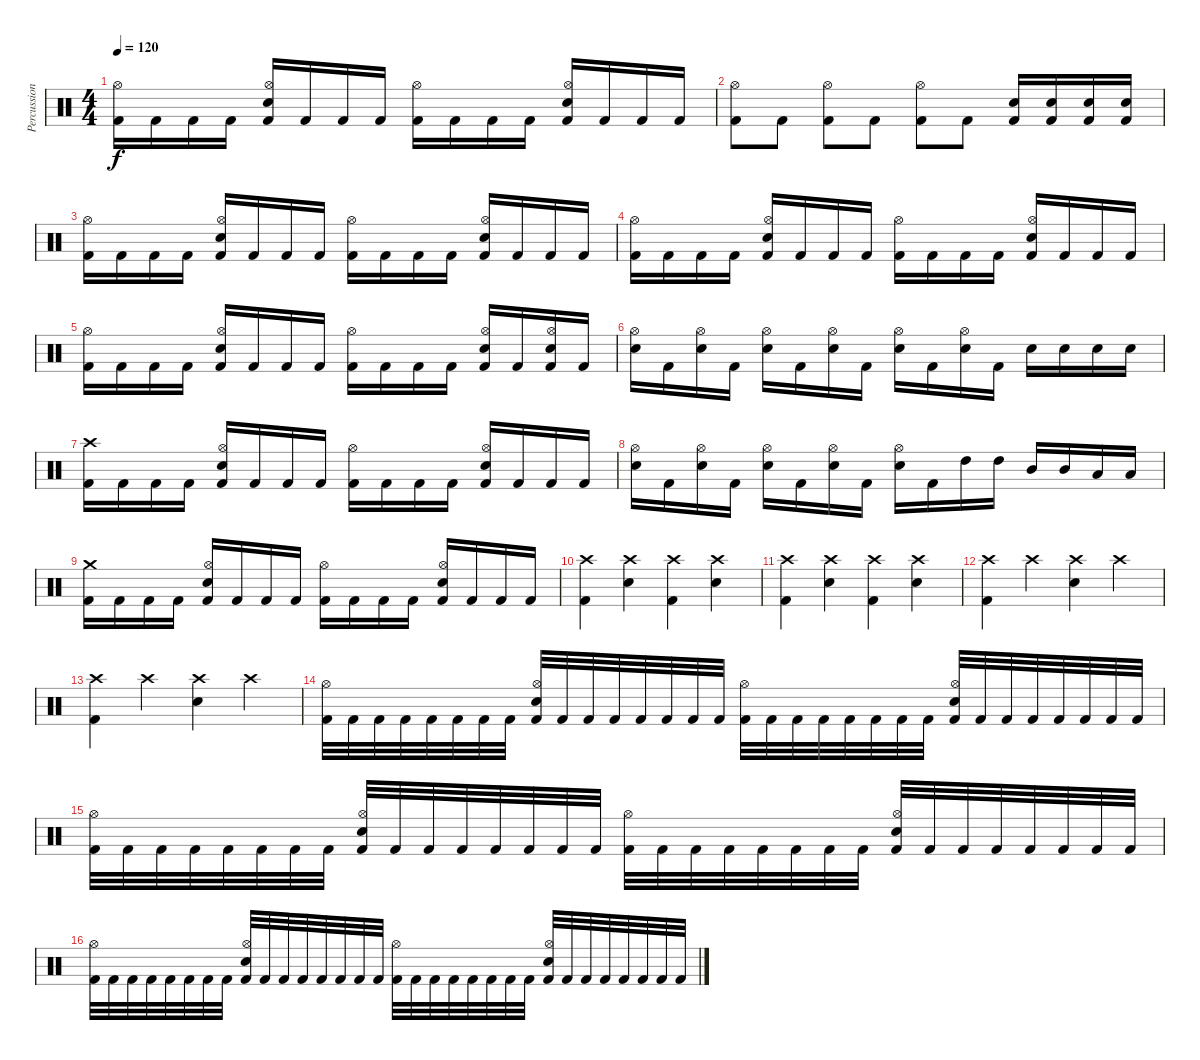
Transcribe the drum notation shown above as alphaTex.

\track ("Percussion" "Percussion") {instrument percussion}
\staff {score}
\articulation defaults
\ts (4 4)
\tempo 120
\clef neutral
\ks c
("Kick (hit) 2" "Hi-Hat (open)").16{dy f} "Kick (hit) 2".16 "Kick (hit) 2".16 "Kick (hit) 2".16 ("Kick (hit) 2" "Hi-Hat (open)" "Electric Snare (hit)").16 "Kick (hit) 2".16 "Kick (hit) 2".16 "Kick (hit) 2".16 ("Kick (hit) 2" "Hi-Hat (open)").16 "Kick (hit) 2".16 "Kick (hit) 2".16 "Kick (hit) 2".16 ("Kick (hit) 2" "Hi-Hat (open)" "Electric Snare (hit)").16 "Kick (hit) 2".16 "Kick (hit) 2".16 "Kick (hit) 2".16 |
("Kick (hit) 2" "Hi-Hat (open)").8 "Kick (hit) 2".8 ("Kick (hit) 2" "Hi-Hat (open)").8 "Kick (hit) 2".8 ("Kick (hit) 2" "Hi-Hat (open)").8 "Kick (hit) 2".8 ("Kick (hit) 2" "Electric Snare (hit)").16 ("Kick (hit) 2" "Electric Snare (hit)").16 ("Kick (hit) 2" "Electric Snare (hit)").16 ("Kick (hit) 2" "Electric Snare (hit)").16 |
("Kick (hit) 2" "Hi-Hat (open)").16 "Kick (hit) 2".16 "Kick (hit) 2".16 "Kick (hit) 2".16 ("Kick (hit) 2" "Hi-Hat (open)" "Electric Snare (hit)").16 "Kick (hit) 2".16 "Kick (hit) 2".16 "Kick (hit) 2".16 ("Kick (hit) 2" "Hi-Hat (open)").16 "Kick (hit) 2".16 "Kick (hit) 2".16 "Kick (hit) 2".16 ("Kick (hit) 2" "Hi-Hat (open)" "Electric Snare (hit)").16 "Kick (hit) 2".16 "Kick (hit) 2".16 "Kick (hit) 2".16 |
("Kick (hit) 2" "Hi-Hat (open)").16 "Kick (hit) 2".16 "Kick (hit) 2".16 "Kick (hit) 2".16 ("Kick (hit) 2" "Hi-Hat (open)" "Electric Snare (hit)").16 "Kick (hit) 2".16 "Kick (hit) 2".16 "Kick (hit) 2".16 ("Kick (hit) 2" "Hi-Hat (open)").16 "Kick (hit) 2".16 "Kick (hit) 2".16 "Kick (hit) 2".16 ("Kick (hit) 2" "Hi-Hat (open)" "Electric Snare (hit)").16 "Kick (hit) 2".16 "Kick (hit) 2".16 "Kick (hit) 2".16 |
("Kick (hit) 2" "Hi-Hat (open)").16 "Kick (hit) 2".16 "Kick (hit) 2".16 "Kick (hit) 2".16 ("Kick (hit) 2" "Hi-Hat (open)" "Electric Snare (hit)").16 "Kick (hit) 2".16 "Kick (hit) 2".16 "Kick (hit) 2".16 ("Kick (hit) 2" "Hi-Hat (open)").16 "Kick (hit) 2".16 "Kick (hit) 2".16 "Kick (hit) 2".16 ("Kick (hit) 2" "Hi-Hat (open)" "Electric Snare (hit)").16 "Kick (hit) 2".16 ("Kick (hit) 2" "Hi-Hat (open)" "Electric Snare (hit)").16 "Kick (hit) 2".16 |
("Electric Snare (hit)" "Hi-Hat (open)").16 "Kick (hit) 2".16 ("Electric Snare (hit)" "Hi-Hat (open)").16 "Kick (hit) 2".16 ("Electric Snare (hit)" "Hi-Hat (open)").16 "Kick (hit) 2".16 ("Electric Snare (hit)" "Hi-Hat (open)").16 "Kick (hit) 2".16 ("Electric Snare (hit)" "Hi-Hat (open)").16 "Kick (hit) 2".16 ("Electric Snare (hit)" "Hi-Hat (open)").16 "Kick (hit) 2".16 "Electric Snare (hit)".16 "Electric Snare (hit)".16 "Electric Snare (hit)".16 "Electric Snare (hit)".16 |
("Kick (hit) 2" "Crash high (hit)").16 "Kick (hit) 2".16 "Kick (hit) 2".16 "Kick (hit) 2".16 ("Kick (hit) 2" "Hi-Hat (open)" "Electric Snare (hit)").16 "Kick (hit) 2".16 "Kick (hit) 2".16 "Kick (hit) 2".16 ("Kick (hit) 2" "Hi-Hat (open)").16 "Kick (hit) 2".16 "Kick (hit) 2".16 "Kick (hit) 2".16 ("Kick (hit) 2" "Hi-Hat (open)" "Electric Snare (hit)").16 "Kick (hit) 2".16 "Kick (hit) 2".16 "Kick (hit) 2".16 |
("Electric Snare (hit)" "Hi-Hat (open)").16 "Kick (hit) 2".16 ("Electric Snare (hit)" "Hi-Hat (open)").16 "Kick (hit) 2".16 ("Electric Snare (hit)" "Hi-Hat (open)").16 "Kick (hit) 2".16 ("Electric Snare (hit)" "Hi-Hat (open)").16 "Kick (hit) 2".16 ("Electric Snare (hit)" "Hi-Hat (open)").16 "Kick (hit) 2".16 "High Tom (hit)".16 "High Tom (hit)".16 "Mid Tom (hit)".16 "Mid Tom (hit)".16 "Low Tom (hit)".16 "Low Tom (hit)".16 |
("Kick (hit) 2" "Crash medium (hit)").16 "Kick (hit) 2".16 "Kick (hit) 2".16 "Kick (hit) 2".16 ("Kick (hit) 2" "Hi-Hat (open)" "Electric Snare (hit)").16 "Kick (hit) 2".16 "Kick (hit) 2".16 "Kick (hit) 2".16 ("Kick (hit) 2" "Hi-Hat (open)").16 "Kick (hit) 2".16 "Kick (hit) 2".16 "Kick (hit) 2".16 ("Kick (hit) 2" "Hi-Hat (open)" "Electric Snare (hit)").16 "Kick (hit) 2".16 "Kick (hit) 2".16 "Kick (hit) 2".16 |
("Crash high (hit)" "Kick (hit) 2").4 ("Crash high (hit)" "Electric Snare (hit)").4 ("Crash high (hit)" "Kick (hit) 2").4 ("Crash high (hit)" "Electric Snare (hit)").4 |
("Crash high (hit)" "Kick (hit) 2").4 ("Crash high (hit)" "Electric Snare (hit)").4 ("Crash high (hit)" "Kick (hit) 2").4 ("Crash high (hit)" "Electric Snare (hit)").4 |
("Crash high (hit)" "Kick (hit) 2").4 "Crash high (hit)".4 ("Crash high (hit)" "Electric Snare (hit)").4 "Crash high (hit)".4 |
("Crash high (hit)" "Kick (hit) 2").4 "Crash high (hit)".4 ("Crash high (hit)" "Electric Snare (hit)").4 "Crash high (hit)".4 |
("Kick (hit) 2" "Hi-Hat (open)").32 "Kick (hit) 2".32 "Kick (hit) 2".32 "Kick (hit) 2".32 "Kick (hit) 2".32 "Kick (hit) 2".32 "Kick (hit) 2".32 "Kick (hit) 2".32 ("Kick (hit) 2" "Hi-Hat (open)" "Electric Snare (hit)").32 "Kick (hit) 2".32 "Kick (hit) 2".32 "Kick (hit) 2".32 "Kick (hit) 2".32 "Kick (hit) 2".32 "Kick (hit) 2".32 "Kick (hit) 2".32 ("Kick (hit) 2" "Hi-Hat (open)").32 "Kick (hit) 2".32 "Kick (hit) 2".32 "Kick (hit) 2".32 "Kick (hit) 2".32 "Kick (hit) 2".32 "Kick (hit) 2".32 "Kick (hit) 2".32 ("Kick (hit) 2" "Hi-Hat (open)" "Electric Snare (hit)").32 "Kick (hit) 2".32 "Kick (hit) 2".32 "Kick (hit) 2".32 "Kick (hit) 2".32 "Kick (hit) 2".32 "Kick (hit) 2".32 "Kick (hit) 2".32 |
("Kick (hit) 2" "Hi-Hat (open)").32 "Kick (hit) 2".32 "Kick (hit) 2".32 "Kick (hit) 2".32 "Kick (hit) 2".32 "Kick (hit) 2".32 "Kick (hit) 2".32 "Kick (hit) 2".32 ("Kick (hit) 2" "Hi-Hat (open)" "Electric Snare (hit)").32 "Kick (hit) 2".32 "Kick (hit) 2".32 "Kick (hit) 2".32 "Kick (hit) 2".32 "Kick (hit) 2".32 "Kick (hit) 2".32 "Kick (hit) 2".32 ("Kick (hit) 2" "Hi-Hat (open)").32 "Kick (hit) 2".32 "Kick (hit) 2".32 "Kick (hit) 2".32 "Kick (hit) 2".32 "Kick (hit) 2".32 "Kick (hit) 2".32 "Kick (hit) 2".32 ("Kick (hit) 2" "Hi-Hat (open)" "Electric Snare (hit)").32 "Kick (hit) 2".32 "Kick (hit) 2".32 "Kick (hit) 2".32 "Kick (hit) 2".32 "Kick (hit) 2".32 "Kick (hit) 2".32 "Kick (hit) 2".32 |
("Kick (hit) 2" "Hi-Hat (open)").32 "Kick (hit) 2".32 "Kick (hit) 2".32 "Kick (hit) 2".32 "Kick (hit) 2".32 "Kick (hit) 2".32 "Kick (hit) 2".32 "Kick (hit) 2".32 ("Kick (hit) 2" "Hi-Hat (open)" "Electric Snare (hit)").32 "Kick (hit) 2".32 "Kick (hit) 2".32 "Kick (hit) 2".32 "Kick (hit) 2".32 "Kick (hit) 2".32 "Kick (hit) 2".32 "Kick (hit) 2".32 ("Kick (hit) 2" "Hi-Hat (open)").32 "Kick (hit) 2".32 "Kick (hit) 2".32 "Kick (hit) 2".32 "Kick (hit) 2".32 "Kick (hit) 2".32 "Kick (hit) 2".32 "Kick (hit) 2".32 ("Kick (hit) 2" "Hi-Hat (open)" "Electric Snare (hit)").32 "Kick (hit) 2".32 "Kick (hit) 2".32 "Kick (hit) 2".32 "Kick (hit) 2".32 "Kick (hit) 2".32 "Kick (hit) 2".32 "Kick (hit) 2".32
